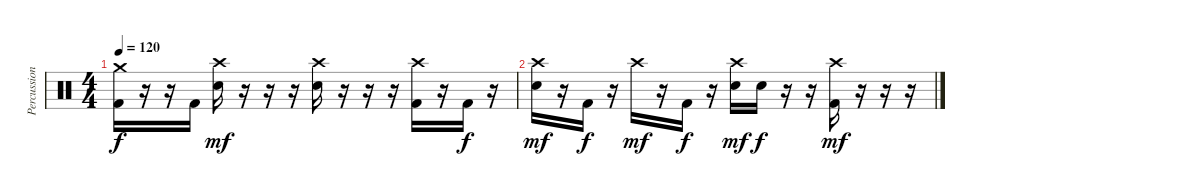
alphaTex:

\track ("Percussion" "Percussion") {instrument percussion}
\staff {score}
\articulation defaults
\ts (4 4)
\tempo 120
\clef neutral
\ks c
("Crash medium (hit)" "Kick (hit) 2").16{dy f} r.16 r.16 "Kick (hit) 2".16 ("Crash high (hit)" "Electric Snare (hit)").16{dy mf} r.16 r.16 r.16 ("Crash high (hit)" "Electric Snare (hit)").16 r.16 r.16 r.16 ("Crash high (hit)" "Kick (hit) 2").16 r.16 "Kick (hit) 2".16{dy f} r.16 |
("Crash high (hit)" "Electric Snare (hit)").16{dy mf} r.16 "Kick (hit) 2".16{dy f} r.16 "Crash high (hit)".16{dy mf} r.16 "Kick (hit) 2".16{dy f} r.16 ("Crash high (hit)" "Electric Snare (hit)").16{dy mf} "Electric Snare (hit)".16{dy f} r.16 r.16 ("Crash high (hit)" "Kick (hit) 2").16{dy mf} r.16 r.16 r.16
